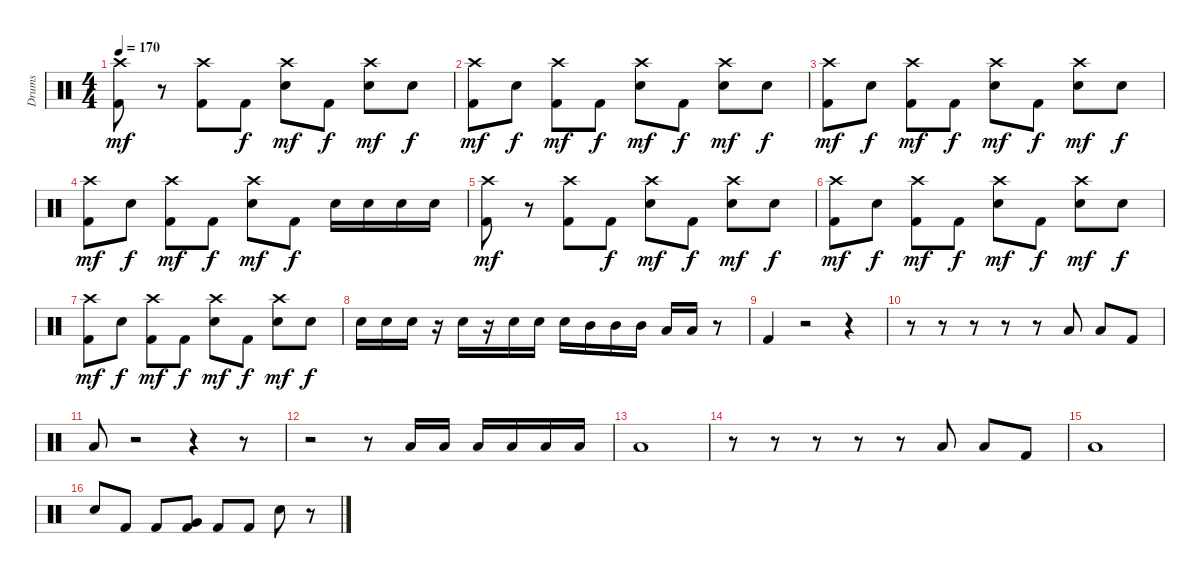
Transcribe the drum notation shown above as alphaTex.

\track ("Drums" "Drums") {instrument percussion}
\staff {score}
\articulation defaults
\ts (4 4)
\tempo 170
\clef neutral
\ks c
("Crash high (hit)" "Kick (hit) 2").8{dy mf} r.8 ("Crash high (hit)" "Kick (hit) 2").8 "Kick (hit) 2".8{dy f} ("Crash high (hit)" "Snare (hit) 2").8{dy mf} "Kick (hit) 2".8{dy f} ("Crash high (hit)" "Snare (hit) 2").8{dy mf} "Snare (hit) 2".8{dy f} |
("Crash high (hit)" "Kick (hit) 2").8{dy mf} "Snare (hit) 2".8{dy f} ("Crash high (hit)" "Kick (hit) 2").8{dy mf} "Kick (hit) 2".8{dy f} ("Crash high (hit)" "Snare (hit) 2").8{dy mf} "Kick (hit) 2".8{dy f} ("Crash high (hit)" "Snare (hit) 2").8{dy mf} "Snare (hit) 2".8{dy f} |
("Crash high (hit)" "Kick (hit) 2").8{dy mf} "Snare (hit) 2".8{dy f} ("Crash high (hit)" "Kick (hit) 2").8{dy mf} "Kick (hit) 2".8{dy f} ("Crash high (hit)" "Snare (hit) 2").8{dy mf} "Kick (hit) 2".8{dy f} ("Crash high (hit)" "Snare (hit) 2").8{dy mf} "Snare (hit) 2".8{dy f} |
("Crash high (hit)" "Kick (hit) 2").8{dy mf} "Snare (hit) 2".8{dy f} ("Crash high (hit)" "Kick (hit) 2").8{dy mf} "Kick (hit) 2".8{dy f} ("Crash high (hit)" "Snare (hit) 2").8{dy mf} "Kick (hit) 2".8{dy f} "Snare (hit) 2".16 "Snare (hit) 2".16 "Snare (hit) 2".16 "Snare (hit) 2".16 |
("Crash high (hit)" "Kick (hit) 2").8{dy mf} r.8 ("Crash high (hit)" "Kick (hit) 2").8 "Kick (hit) 2".8{dy f} ("Crash high (hit)" "Snare (hit) 2").8{dy mf} "Kick (hit) 2".8{dy f} ("Crash high (hit)" "Snare (hit) 2").8{dy mf} "Snare (hit) 2".8{dy f} |
("Crash high (hit)" "Kick (hit) 2").8{dy mf} "Snare (hit) 2".8{dy f} ("Crash high (hit)" "Kick (hit) 2").8{dy mf} "Kick (hit) 2".8{dy f} ("Crash high (hit)" "Snare (hit) 2").8{dy mf} "Kick (hit) 2".8{dy f} ("Crash high (hit)" "Snare (hit) 2").8{dy mf} "Snare (hit) 2".8{dy f} |
("Crash high (hit)" "Kick (hit) 2").8{dy mf} "Snare (hit) 2".8{dy f} ("Crash high (hit)" "Kick (hit) 2").8{dy mf} "Kick (hit) 2".8{dy f} ("Crash high (hit)" "Snare (hit) 2").8{dy mf} "Kick (hit) 2".8{dy f} ("Crash high (hit)" "Snare (hit) 2").8{dy mf} "Snare (hit) 2".8{dy f} |
"Snare (hit) 2".16 "Snare (hit) 2".16 "Snare (hit) 2".16 r.16 "Snare (hit) 2".16 r.16 "Snare (hit) 2".16 "Snare (hit) 2".16 "Snare (hit) 2".16 "Mid Tom (hit)".16 "Mid Tom (hit)".16 "Mid Tom (hit)".16 "Low Floor Tom (hit)".16 "Low Floor Tom (hit)".16 r.8 |
"Kick (hit) 2".4 r.2 r.4 |
r.8 r.8 r.8 r.8 r.8 "Low Tom (hit)".8 "Low Tom (hit)".8 "Kick (hit) 2".8 |
"Low Floor Tom (hit)".8 r.2 r.4 r.8 |
r.2 r.8 "Low Tom (hit)".16 "Low Tom (hit)".16 "Low Tom (hit)".16 "Low Tom (hit)".16 "Low Tom (hit)".16 "Low Tom (hit)".16 |
"Low Floor Tom (hit)".1 |
r.8 r.8 r.8 r.8 r.8 "Low Tom (hit)".8 "Low Tom (hit)".8 "Kick (hit) 2".8 |
"Low Floor Tom (hit)".1 |
"Snare (hit) 2".8 "Kick (hit) 2".8 "Kick (hit) 2".8 ("Very Low Tom (hit)" "Kick (hit) 2").8 "Kick (hit) 2".8 "Kick (hit) 2".8 "Snare (hit) 2".8 r.8
